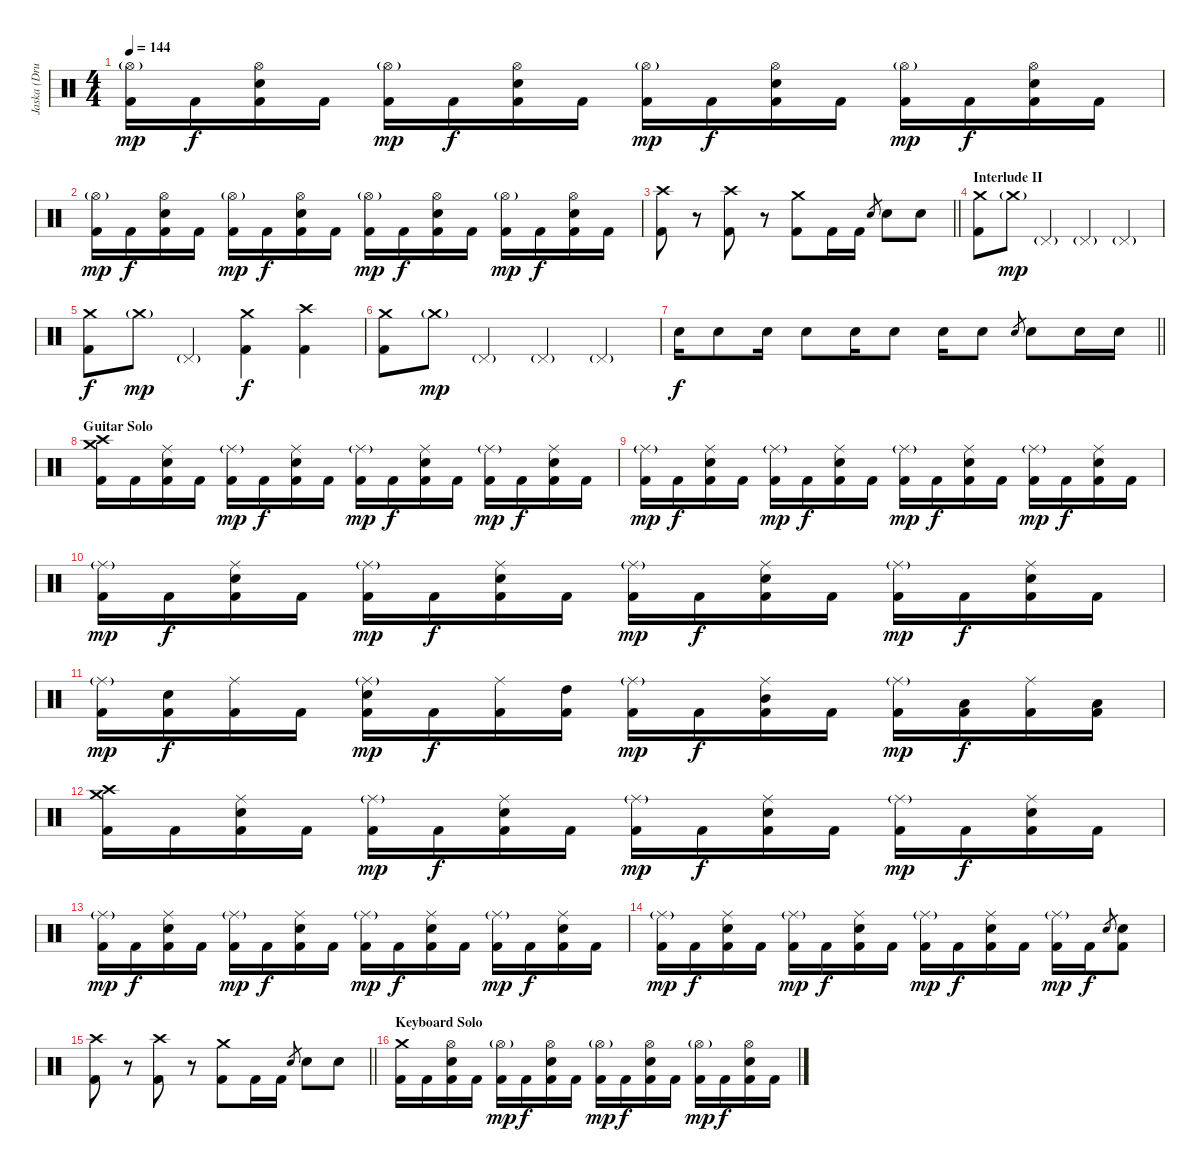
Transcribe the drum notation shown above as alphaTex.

\track ("Jaska (Drums)" "Jaska (Dru") {instrument percussion}
\staff {score}
\articulation defaults
\ts (4 4)
\tempo 144
\clef neutral
\ks c
("Hi-Hat (open)"{g} "Kick (hit) 2").16{dy mp} "Kick (hit) 2".16{dy f} ("Hi-Hat (open)" "Electric Snare (hit)" "Kick (hit) 2").16 "Kick (hit) 2".16 ("Hi-Hat (open)"{g} "Kick (hit) 2").16{dy mp} "Kick (hit) 2".16{dy f} ("Hi-Hat (open)" "Electric Snare (hit)" "Kick (hit) 2").16 "Kick (hit) 2".16 ("Hi-Hat (open)"{g} "Kick (hit) 2").16{dy mp} "Kick (hit) 2".16{dy f} ("Hi-Hat (open)" "Electric Snare (hit)" "Kick (hit) 2").16 "Kick (hit) 2".16 ("Hi-Hat (open)"{g} "Kick (hit) 2").16{dy mp} "Kick (hit) 2".16{dy f} ("Hi-Hat (open)" "Electric Snare (hit)" "Kick (hit) 2").16 "Kick (hit) 2".16 |
("Hi-Hat (open)"{g} "Kick (hit) 2").16{dy mp} "Kick (hit) 2".16{dy f} ("Hi-Hat (open)" "Electric Snare (hit)" "Kick (hit) 2").16 "Kick (hit) 2".16 ("Hi-Hat (open)"{g} "Kick (hit) 2").16{dy mp} "Kick (hit) 2".16{dy f} ("Hi-Hat (open)" "Electric Snare (hit)" "Kick (hit) 2").16 "Kick (hit) 2".16 ("Hi-Hat (open)"{g} "Kick (hit) 2").16{dy mp} "Kick (hit) 2".16{dy f} ("Hi-Hat (open)" "Electric Snare (hit)" "Kick (hit) 2").16 "Kick (hit) 2".16 ("Hi-Hat (open)"{g} "Kick (hit) 2").16{dy mp} "Kick (hit) 2".16{dy f} ("Hi-Hat (open)" "Electric Snare (hit)" "Kick (hit) 2").16 "Kick (hit) 2".16 |
\barLineRight lightlight
("Crash high (hit)" "Kick (hit) 2").8 r.8{volume 0} ("Crash high (hit)" "Kick (hit) 2").8{volume 16} r.8{volume 0} ("Crash medium (hit)" "Kick (hit) 2").8{volume 16} "Kick (hit) 2".16 "Kick (hit) 2".16 "Electric Snare (hit)".8{gr} "Electric Snare (hit)".8 "Electric Snare (hit)".8 |
\section ("" "Interlude II")
("Crash medium (hit)" "Kick (hit) 2").8 "Crash medium (hit)"{g}.8{dy mp volume 0} "Pedal Hi-Hat (hit)"{g}.4{volume 5} "Pedal Hi-Hat (hit)"{g}.4 "Pedal Hi-Hat (hit)"{g}.4 |
("Crash medium (hit)" "Kick (hit) 2").8{dy f volume 16} "Crash medium (hit)"{g}.8{dy mp volume 0} "Pedal Hi-Hat (hit)"{g}.4{volume 5} ("Crash medium (hit)" "Kick (hit) 2").4{dy f volume 16} ("Crash high (hit)" "Kick (hit) 2").4 |
("Crash medium (hit)" "Kick (hit) 2").8 "Crash medium (hit)"{g}.8{dy mp volume 0} "Pedal Hi-Hat (hit)"{g}.4{volume 5} "Pedal Hi-Hat (hit)"{g}.4 "Pedal Hi-Hat (hit)"{g}.4 |
\barLineRight lightlight "Electric Snare (hit)".16{dy f volume 16} "Electric Snare (hit)".8 "Electric Snare (hit)".16 "Electric Snare (hit)".8 "Electric Snare (hit)".16 "Electric Snare (hit)".8 "Electric Snare (hit)".16 "Electric Snare (hit)".8 "Electric Snare (hit)".8{gr} "Electric Snare (hit)".8 "Electric Snare (hit)".16 "Electric Snare (hit)".16
|
\section ("" "Guitar Solo")
("Crash medium (hit)" "Crash high (hit)" "Kick (hit) 2").16 "Kick (hit) 2".16 ("Ride (middle)" "Electric Snare (hit)" "Kick (hit) 2").16 "Kick (hit) 2".16 ("Ride (middle)"{g} "Kick (hit) 2").16{dy mp} "Kick (hit) 2".16{dy f} ("Ride (middle)" "Electric Snare (hit)" "Kick (hit) 2").16 "Kick (hit) 2".16 ("Ride (middle)"{g} "Kick (hit) 2").16{dy mp} "Kick (hit) 2".16{dy f} ("Ride (middle)" "Electric Snare (hit)" "Kick (hit) 2").16 "Kick (hit) 2".16 ("Ride (middle)"{g} "Kick (hit) 2").16{dy mp} "Kick (hit) 2".16{dy f} ("Ride (middle)" "Electric Snare (hit)" "Kick (hit) 2").16 "Kick (hit) 2".16 |
("Ride (middle)"{g} "Kick (hit) 2").16{dy mp} "Kick (hit) 2".16{dy f} ("Ride (middle)" "Electric Snare (hit)" "Kick (hit) 2").16 "Kick (hit) 2".16 ("Ride (middle)"{g} "Kick (hit) 2").16{dy mp} "Kick (hit) 2".16{dy f} ("Ride (middle)" "Electric Snare (hit)" "Kick (hit) 2").16 "Kick (hit) 2".16 ("Ride (middle)"{g} "Kick (hit) 2").16{dy mp} "Kick (hit) 2".16{dy f} ("Ride (middle)" "Electric Snare (hit)" "Kick (hit) 2").16 "Kick (hit) 2".16 ("Ride (middle)"{g} "Kick (hit) 2").16{dy mp} "Kick (hit) 2".16{dy f} ("Ride (middle)" "Electric Snare (hit)" "Kick (hit) 2").16 "Kick (hit) 2".16 |
("Ride (middle)"{g} "Kick (hit) 2").16{dy mp} "Kick (hit) 2".16{dy f} ("Ride (middle)" "Electric Snare (hit)" "Kick (hit) 2").16 "Kick (hit) 2".16 ("Ride (middle)"{g} "Kick (hit) 2").16{dy mp} "Kick (hit) 2".16{dy f} ("Ride (middle)" "Electric Snare (hit)" "Kick (hit) 2").16 "Kick (hit) 2".16 ("Ride (middle)"{g} "Kick (hit) 2").16{dy mp} "Kick (hit) 2".16{dy f} ("Ride (middle)" "Electric Snare (hit)" "Kick (hit) 2").16 "Kick (hit) 2".16 ("Ride (middle)"{g} "Kick (hit) 2").16{dy mp} "Kick (hit) 2".16{dy f} ("Ride (middle)" "Electric Snare (hit)" "Kick (hit) 2").16 "Kick (hit) 2".16 |
("Ride (middle)"{g} "Kick (hit) 2").16{dy mp} ("Electric Snare (hit)" "Kick (hit) 2").16{dy f} ("Ride (middle)" "Kick (hit) 2").16 "Kick (hit) 2".16 ("Ride (middle)"{g} "Electric Snare (hit)" "Kick (hit) 2").16{dy mp} "Kick (hit) 2".16{dy f} ("Ride (middle)" "Kick (hit) 2").16 ("High Tom (hit)" "Kick (hit) 2").16 ("Ride (middle)"{g} "Kick (hit) 2").16{dy mp} "Kick (hit) 2".16{dy f} ("Mid Tom (hit)" "Ride (middle)" "Kick (hit) 2").16 "Kick (hit) 2".16 ("Ride (middle)"{g} "Kick (hit) 2").16{dy mp} ("Low Tom (hit)" "Kick (hit) 2").16{dy f} ("Ride (middle)" "Kick (hit) 2").16 ("Low Tom (hit)" "Kick (hit) 2").16 |
("Crash medium (hit)" "Crash high (hit)" "Kick (hit) 2").16 "Kick (hit) 2".16 ("Ride (middle)" "Electric Snare (hit)" "Kick (hit) 2").16 "Kick (hit) 2".16 ("Ride (middle)"{g} "Kick (hit) 2").16{dy mp} "Kick (hit) 2".16{dy f} ("Ride (middle)" "Electric Snare (hit)" "Kick (hit) 2").16 "Kick (hit) 2".16 ("Ride (middle)"{g} "Kick (hit) 2").16{dy mp} "Kick (hit) 2".16{dy f} ("Ride (middle)" "Electric Snare (hit)" "Kick (hit) 2").16 "Kick (hit) 2".16 ("Ride (middle)"{g} "Kick (hit) 2").16{dy mp} "Kick (hit) 2".16{dy f} ("Ride (middle)" "Electric Snare (hit)" "Kick (hit) 2").16 "Kick (hit) 2".16 |
("Ride (middle)"{g} "Kick (hit) 2").16{dy mp} "Kick (hit) 2".16{dy f} ("Ride (middle)" "Electric Snare (hit)" "Kick (hit) 2").16 "Kick (hit) 2".16 ("Ride (middle)"{g} "Kick (hit) 2").16{dy mp} "Kick (hit) 2".16{dy f} ("Ride (middle)" "Electric Snare (hit)" "Kick (hit) 2").16 "Kick (hit) 2".16 ("Ride (middle)"{g} "Kick (hit) 2").16{dy mp} "Kick (hit) 2".16{dy f} ("Ride (middle)" "Electric Snare (hit)" "Kick (hit) 2").16 "Kick (hit) 2".16 ("Ride (middle)"{g} "Kick (hit) 2").16{dy mp} "Kick (hit) 2".16{dy f} ("Ride (middle)" "Electric Snare (hit)" "Kick (hit) 2").16 "Kick (hit) 2".16 |
("Ride (middle)"{g} "Kick (hit) 2").16{dy mp} "Kick (hit) 2".16{dy f} ("Ride (middle)" "Electric Snare (hit)" "Kick (hit) 2").16 "Kick (hit) 2".16 ("Ride (middle)"{g} "Kick (hit) 2").16{dy mp} "Kick (hit) 2".16{dy f} ("Ride (middle)" "Electric Snare (hit)" "Kick (hit) 2").16 "Kick (hit) 2".16 ("Ride (middle)"{g} "Kick (hit) 2").16{dy mp} "Kick (hit) 2".16{dy f} ("Ride (middle)" "Electric Snare (hit)" "Kick (hit) 2").16 "Kick (hit) 2".16 ("Ride (middle)"{g} "Kick (hit) 2").16{dy mp} "Kick (hit) 2".16{dy f} "Electric Snare (hit)".8{gr} ("Electric Snare (hit)" "Kick (hit) 2").8 |
\barLineRight lightlight
("Crash high (hit)" "Kick (hit) 2").8 r.8{volume 0} ("Crash high (hit)" "Kick (hit) 2").8{volume 16} r.8{volume 0} ("Crash medium (hit)" "Kick (hit) 2").8{volume 16} "Kick (hit) 2".16 "Kick (hit) 2".16 "Electric Snare (hit)".8{gr} "Electric Snare (hit)".8 "Electric Snare (hit)".8 |
\section ("" "Keyboard Solo")
("Crash medium (hit)" "Kick (hit) 2").16 "Kick (hit) 2".16 ("Hi-Hat (open)" "Electric Snare (hit)" "Kick (hit) 2").16 "Kick (hit) 2".16 ("Hi-Hat (open)"{g} "Kick (hit) 2").16{dy mp} "Kick (hit) 2".16{dy f} ("Hi-Hat (open)" "Electric Snare (hit)" "Kick (hit) 2").16 "Kick (hit) 2".16 ("Hi-Hat (open)"{g} "Kick (hit) 2").16{dy mp} "Kick (hit) 2".16{dy f} ("Hi-Hat (open)" "Electric Snare (hit)" "Kick (hit) 2").16 "Kick (hit) 2".16 ("Hi-Hat (open)"{g} "Kick (hit) 2").16{dy mp} "Kick (hit) 2".16{dy f} ("Hi-Hat (open)" "Electric Snare (hit)" "Kick (hit) 2").16 "Kick (hit) 2".16
